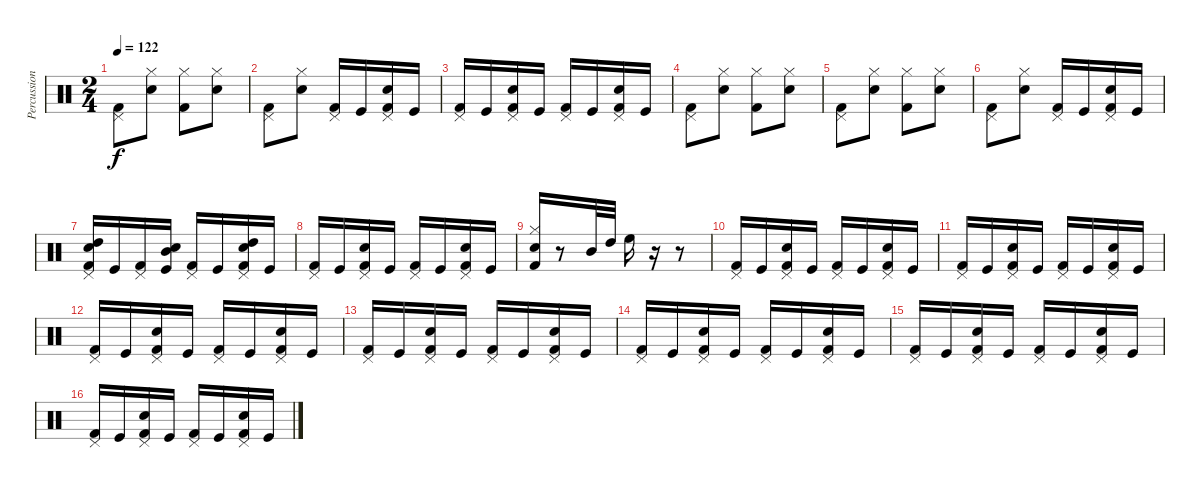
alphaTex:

\track ("Percussions" "Percussion") {instrument percussion}
\staff {score}
\articulation defaults
\ts (2 4)
\tempo 122
\clef neutral
\ks c
("Pedal Hi-Hat (hit)" "Kick (hit) 2").8{dy f} ("Hi-Hat (closed)" "Snare (hit) 2").8 ("Hi-Hat (closed)" "Kick (hit) 2").8 ("Hi-Hat (closed)" "Snare (hit) 2").8 |
("Pedal Hi-Hat (hit)" "Kick (hit) 2").8 ("Hi-Hat (closed)" "Snare (hit) 2").8 ("Pedal Hi-Hat (hit)" "Kick (hit) 2").16 "Kick (hit)".16 ("Pedal Hi-Hat (hit)" "Snare (hit) 2" "Kick (hit) 2").16 "Kick (hit)".16 |
("Pedal Hi-Hat (hit)" "Kick (hit) 2").16 "Kick (hit)".16 ("Pedal Hi-Hat (hit)" "Snare (hit) 2" "Kick (hit) 2").16 "Kick (hit)".16 ("Pedal Hi-Hat (hit)" "Kick (hit) 2").16 "Kick (hit)".16 ("Pedal Hi-Hat (hit)" "Snare (hit) 2" "Kick (hit) 2").16 "Kick (hit)".16 |
("Pedal Hi-Hat (hit)" "Kick (hit) 2").8 ("Hi-Hat (closed)" "Snare (hit) 2").8 ("Hi-Hat (closed)" "Kick (hit) 2").8 ("Hi-Hat (closed)" "Snare (hit) 2").8 |
("Pedal Hi-Hat (hit)" "Kick (hit) 2").8 ("Hi-Hat (closed)" "Snare (hit) 2").8 ("Hi-Hat (closed)" "Kick (hit) 2").8 ("Hi-Hat (closed)" "Snare (hit) 2").8 |
("Pedal Hi-Hat (hit)" "Kick (hit) 2").8 ("Hi-Hat (closed)" "Snare (hit) 2").8 ("Pedal Hi-Hat (hit)" "Kick (hit) 2").16 "Kick (hit)".16 ("Pedal Hi-Hat (hit)" "Snare (hit) 2" "Kick (hit) 2").16 "Kick (hit)".16 |
("Pedal Hi-Hat (hit)" "High Tom (hit)" "Snare (hit) 2" "Kick (hit) 2").16 "Kick (hit)".16 ("Pedal Hi-Hat (hit)" "Kick (hit) 2").16 ("Mid Tom (hit)" "Snare (hit) 2" "Kick (hit)").16 ("Pedal Hi-Hat (hit)" "Kick (hit) 2").16 "Kick (hit)".16 ("Pedal Hi-Hat (hit)" "High Tom (hit)" "Snare (hit) 2" "Kick (hit) 2").16 "Kick (hit)".16 |
("Pedal Hi-Hat (hit)" "Kick (hit) 2").16 "Kick (hit)".16 ("Pedal Hi-Hat (hit)" "Snare (hit) 2" "Kick (hit) 2").16 "Kick (hit)".16 ("Pedal Hi-Hat (hit)" "Kick (hit) 2").16 "Kick (hit)".16 ("Pedal Hi-Hat (hit)" "Snare (hit) 2" "Kick (hit) 2").16 "Kick (hit)".16 |
("Hi-Hat (closed)" "Snare (hit) 2" "Kick (hit) 2").16 r.8 "Mid Tom (hit)".32 "High Tom (hit)".32 "High Floor Tom (hit)".16 r.16 r.8 |
("Pedal Hi-Hat (hit)" "Kick (hit) 2").16 "Kick (hit)".16 ("Pedal Hi-Hat (hit)" "Snare (hit) 2" "Kick (hit) 2").16 "Kick (hit)".16 ("Pedal Hi-Hat (hit)" "Kick (hit) 2").16 "Kick (hit)".16 ("Pedal Hi-Hat (hit)" "Snare (hit) 2" "Kick (hit) 2").16 "Kick (hit)".16 |
("Pedal Hi-Hat (hit)" "Kick (hit) 2").16 "Kick (hit)".16 ("Pedal Hi-Hat (hit)" "Snare (hit) 2" "Kick (hit) 2").16 "Kick (hit)".16 ("Pedal Hi-Hat (hit)" "Kick (hit) 2").16 "Kick (hit)".16 ("Pedal Hi-Hat (hit)" "Snare (hit) 2" "Kick (hit) 2").16 "Kick (hit)".16 |
("Pedal Hi-Hat (hit)" "Kick (hit) 2").16 "Kick (hit)".16 ("Pedal Hi-Hat (hit)" "Snare (hit) 2" "Kick (hit) 2").16 "Kick (hit)".16 ("Pedal Hi-Hat (hit)" "Kick (hit) 2").16 "Kick (hit)".16 ("Pedal Hi-Hat (hit)" "Snare (hit) 2" "Kick (hit) 2").16 "Kick (hit)".16 |
("Pedal Hi-Hat (hit)" "Kick (hit) 2").16 "Kick (hit)".16 ("Pedal Hi-Hat (hit)" "Snare (hit) 2" "Kick (hit) 2").16 "Kick (hit)".16 ("Pedal Hi-Hat (hit)" "Kick (hit) 2").16 "Kick (hit)".16 ("Pedal Hi-Hat (hit)" "Snare (hit) 2" "Kick (hit) 2").16 "Kick (hit)".16 |
("Pedal Hi-Hat (hit)" "Kick (hit) 2").16 "Kick (hit)".16 ("Pedal Hi-Hat (hit)" "Snare (hit) 2" "Kick (hit) 2").16 "Kick (hit)".16 ("Pedal Hi-Hat (hit)" "Kick (hit) 2").16 "Kick (hit)".16 ("Pedal Hi-Hat (hit)" "Snare (hit) 2" "Kick (hit) 2").16 "Kick (hit)".16 |
("Pedal Hi-Hat (hit)" "Kick (hit) 2").16 "Kick (hit)".16 ("Pedal Hi-Hat (hit)" "Snare (hit) 2" "Kick (hit) 2").16 "Kick (hit)".16 ("Pedal Hi-Hat (hit)" "Kick (hit) 2").16 "Kick (hit)".16 ("Pedal Hi-Hat (hit)" "Snare (hit) 2" "Kick (hit) 2").16 "Kick (hit)".16 |
("Pedal Hi-Hat (hit)" "Kick (hit) 2").16 "Kick (hit)".16 ("Pedal Hi-Hat (hit)" "Snare (hit) 2" "Kick (hit) 2").16 "Kick (hit)".16 ("Pedal Hi-Hat (hit)" "Kick (hit) 2").16 "Kick (hit)".16 ("Pedal Hi-Hat (hit)" "Snare (hit) 2" "Kick (hit) 2").16 "Kick (hit)".16
